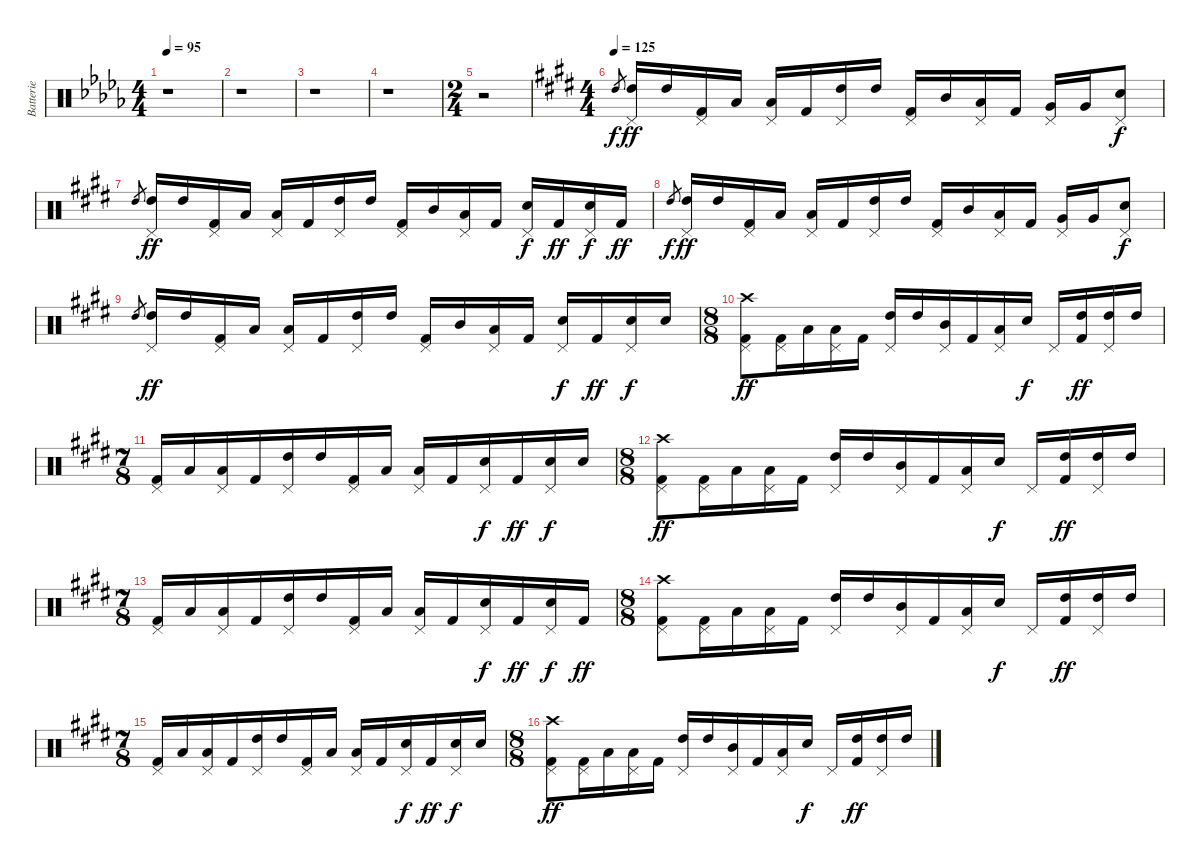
\track ("Batterie" "Batterie") {instrument percussion}
\staff {score}
\articulation defaults
\ts (4 4)
\tempo 95
\clef neutral
\ks db
r.1{dy ff} |
r.1 |
r.1 |
r.1 |
\ts (2 4)
r.2 |
\ts (4 4)
\tempo 125
\ks e "High Tom (hit)".8{gr dy f}
("Pedal Hi-Hat (hit)" "High Tom (hit)").16{dy ff} "High Tom (hit)".16 ("Pedal Hi-Hat (hit)" "Kick (hit) 2").16 "Low Tom (hit)".16 ("Pedal Hi-Hat (hit)" "Low Tom (hit)").16 "Kick (hit) 2".16 ("Pedal Hi-Hat (hit)" "High Tom (hit)").16 "High Tom (hit)".16 ("Pedal Hi-Hat (hit)" "Kick (hit) 2").16 "Mid Tom (hit)".16 ("Pedal Hi-Hat (hit)" "Low Tom (hit)").16 "Kick (hit) 2".16 ("Pedal Hi-Hat (hit)" "Very Low Tom (hit)").16 "Very Low Tom (hit)".16 ("Pedal Hi-Hat (hit)" "Snare (hit) 2").8{dy f} |
"High Tom (hit)".8{gr} ("Pedal Hi-Hat (hit)" "High Tom (hit)").16{dy ff} "High Tom (hit)".16 ("Pedal Hi-Hat (hit)" "Kick (hit) 2").16 "Low Tom (hit)".16 ("Pedal Hi-Hat (hit)" "Low Tom (hit)").16 "Kick (hit) 2".16 ("Pedal Hi-Hat (hit)" "High Tom (hit)").16 "High Tom (hit)".16 ("Pedal Hi-Hat (hit)" "Kick (hit) 2").16 "Mid Tom (hit)".16 ("Pedal Hi-Hat (hit)" "Low Tom (hit)").16 "Kick (hit) 2".16 ("Pedal Hi-Hat (hit)" "Snare (hit) 2").16{dy f} "Kick (hit) 2".16{dy ff} ("Pedal Hi-Hat (hit)" "Snare (hit) 2").16{dy f} "Kick (hit) 2".16{dy ff} |
"High Tom (hit)".8{gr dy f} ("Pedal Hi-Hat (hit)" "High Tom (hit)").16{dy ff} "High Tom (hit)".16 ("Pedal Hi-Hat (hit)" "Kick (hit) 2").16 "Low Tom (hit)".16 ("Pedal Hi-Hat (hit)" "Low Tom (hit)").16 "Kick (hit) 2".16 ("Pedal Hi-Hat (hit)" "High Tom (hit)").16 "High Tom (hit)".16 ("Pedal Hi-Hat (hit)" "Kick (hit) 2").16 "Mid Tom (hit)".16 ("Pedal Hi-Hat (hit)" "Low Tom (hit)").16 "Kick (hit) 2".16 ("Pedal Hi-Hat (hit)" "Very Low Tom (hit)").16 "Very Low Tom (hit)".16 ("Pedal Hi-Hat (hit)" "Snare (hit) 2").8{dy f} |
"High Tom (hit)".8{gr} ("Pedal Hi-Hat (hit)" "High Tom (hit)").16{dy ff} "High Tom (hit)".16 ("Pedal Hi-Hat (hit)" "Kick (hit) 2").16 "Low Tom (hit)".16 ("Pedal Hi-Hat (hit)" "Low Tom (hit)").16 "Kick (hit) 2".16 ("Pedal Hi-Hat (hit)" "High Tom (hit)").16 "High Tom (hit)".16 ("Pedal Hi-Hat (hit)" "Kick (hit) 2").16 "Mid Tom (hit)".16 ("Pedal Hi-Hat (hit)" "Low Tom (hit)").16 "Kick (hit) 2".16 ("Pedal Hi-Hat (hit)" "Snare (hit) 2").16{dy f} "Kick (hit) 2".16{dy ff} ("Pedal Hi-Hat (hit)" "Snare (hit) 2").16{dy f} "Snare (hit) 2".16 |
\ts (8 8)
("Crash high (hit)" "Pedal Hi-Hat (hit)" "Kick (hit) 2").8{dy ff} ("Pedal Hi-Hat (hit)" "Kick (hit) 2").16 "Low Tom (hit)".16 ("Pedal Hi-Hat (hit)" "Low Tom (hit)").16 "Kick (hit) 2".16 ("Pedal Hi-Hat (hit)" "High Tom (hit)").16 "High Tom (hit)".16 ("Pedal Hi-Hat (hit)" "Mid Tom (hit)").16 "Kick (hit) 2".16 ("Pedal Hi-Hat (hit)" "Low Tom (hit)").16 "Snare (hit) 2".16{dy f} "Pedal Hi-Hat (hit)".16 ("High Tom (hit)" "Kick (hit) 2").16{dy ff} ("Pedal Hi-Hat (hit)" "High Tom (hit)").16 "High Tom (hit)".16 |
\ts (7 8)
("Pedal Hi-Hat (hit)" "Kick (hit) 2").16 "Low Tom (hit)".16 ("Pedal Hi-Hat (hit)" "Low Tom (hit)").16 "Kick (hit) 2".16 ("Pedal Hi-Hat (hit)" "High Tom (hit)").16 "High Tom (hit)".16 ("Pedal Hi-Hat (hit)" "Kick (hit) 2").16 "Low Tom (hit)".16 ("Pedal Hi-Hat (hit)" "Low Tom (hit)").16 "Kick (hit) 2".16 ("Pedal Hi-Hat (hit)" "Snare (hit) 2").16{dy f} "Kick (hit) 2".16{dy ff} ("Pedal Hi-Hat (hit)" "Snare (hit) 2").16{dy f} "Snare (hit) 2".16 |
\ts (8 8)
("Crash high (hit)" "Pedal Hi-Hat (hit)" "Kick (hit) 2").8{dy ff} ("Pedal Hi-Hat (hit)" "Kick (hit) 2").16 "Low Tom (hit)".16 ("Pedal Hi-Hat (hit)" "Low Tom (hit)").16 "Kick (hit) 2".16 ("Pedal Hi-Hat (hit)" "High Tom (hit)").16 "High Tom (hit)".16 ("Pedal Hi-Hat (hit)" "Mid Tom (hit)").16 "Kick (hit) 2".16 ("Pedal Hi-Hat (hit)" "Low Tom (hit)").16 "Snare (hit) 2".16{dy f} "Pedal Hi-Hat (hit)".16 ("High Tom (hit)" "Kick (hit) 2").16{dy ff} ("Pedal Hi-Hat (hit)" "High Tom (hit)").16 "High Tom (hit)".16 |
\ts (7 8)
("Pedal Hi-Hat (hit)" "Kick (hit) 2").16 "Low Tom (hit)".16 ("Pedal Hi-Hat (hit)" "Low Tom (hit)").16 "Kick (hit) 2".16 ("Pedal Hi-Hat (hit)" "High Tom (hit)").16 "High Tom (hit)".16 ("Pedal Hi-Hat (hit)" "Kick (hit) 2").16 "Low Tom (hit)".16 ("Pedal Hi-Hat (hit)" "Low Tom (hit)").16 "Kick (hit) 2".16 ("Pedal Hi-Hat (hit)" "Snare (hit) 2").16{dy f} "Kick (hit) 2".16{dy ff} ("Pedal Hi-Hat (hit)" "Snare (hit) 2").16{dy f} "Kick (hit) 2".16{dy ff} |
\ts (8 8)
("Crash high (hit)" "Pedal Hi-Hat (hit)" "Kick (hit) 2").8 ("Pedal Hi-Hat (hit)" "Kick (hit) 2").16 "Low Tom (hit)".16 ("Pedal Hi-Hat (hit)" "Low Tom (hit)").16 "Kick (hit) 2".16 ("Pedal Hi-Hat (hit)" "High Tom (hit)").16 "High Tom (hit)".16 ("Pedal Hi-Hat (hit)" "Mid Tom (hit)").16 "Kick (hit) 2".16 ("Pedal Hi-Hat (hit)" "Low Tom (hit)").16 "Snare (hit) 2".16{dy f} "Pedal Hi-Hat (hit)".16 ("High Tom (hit)" "Kick (hit) 2").16{dy ff} ("Pedal Hi-Hat (hit)" "High Tom (hit)").16 "High Tom (hit)".16 |
\ts (7 8)
("Pedal Hi-Hat (hit)" "Kick (hit) 2").16 "Low Tom (hit)".16 ("Pedal Hi-Hat (hit)" "Low Tom (hit)").16 "Kick (hit) 2".16 ("Pedal Hi-Hat (hit)" "High Tom (hit)").16 "High Tom (hit)".16 ("Pedal Hi-Hat (hit)" "Kick (hit) 2").16 "Low Tom (hit)".16 ("Pedal Hi-Hat (hit)" "Low Tom (hit)").16 "Kick (hit) 2".16 ("Pedal Hi-Hat (hit)" "Snare (hit) 2").16{dy f} "Kick (hit) 2".16{dy ff} ("Pedal Hi-Hat (hit)" "Snare (hit) 2").16{dy f} "Snare (hit) 2".16 |
\ts (8 8)
("Crash high (hit)" "Pedal Hi-Hat (hit)" "Kick (hit) 2").8{dy ff} ("Pedal Hi-Hat (hit)" "Kick (hit) 2").16 "Low Tom (hit)".16 ("Pedal Hi-Hat (hit)" "Low Tom (hit)").16 "Kick (hit) 2".16 ("Pedal Hi-Hat (hit)" "High Tom (hit)").16 "High Tom (hit)".16 ("Pedal Hi-Hat (hit)" "Mid Tom (hit)").16 "Kick (hit) 2".16 ("Pedal Hi-Hat (hit)" "Low Tom (hit)").16 "Snare (hit) 2".16{dy f} "Pedal Hi-Hat (hit)".16 ("High Tom (hit)" "Kick (hit) 2").16{dy ff} ("Pedal Hi-Hat (hit)" "High Tom (hit)").16 "High Tom (hit)".16
